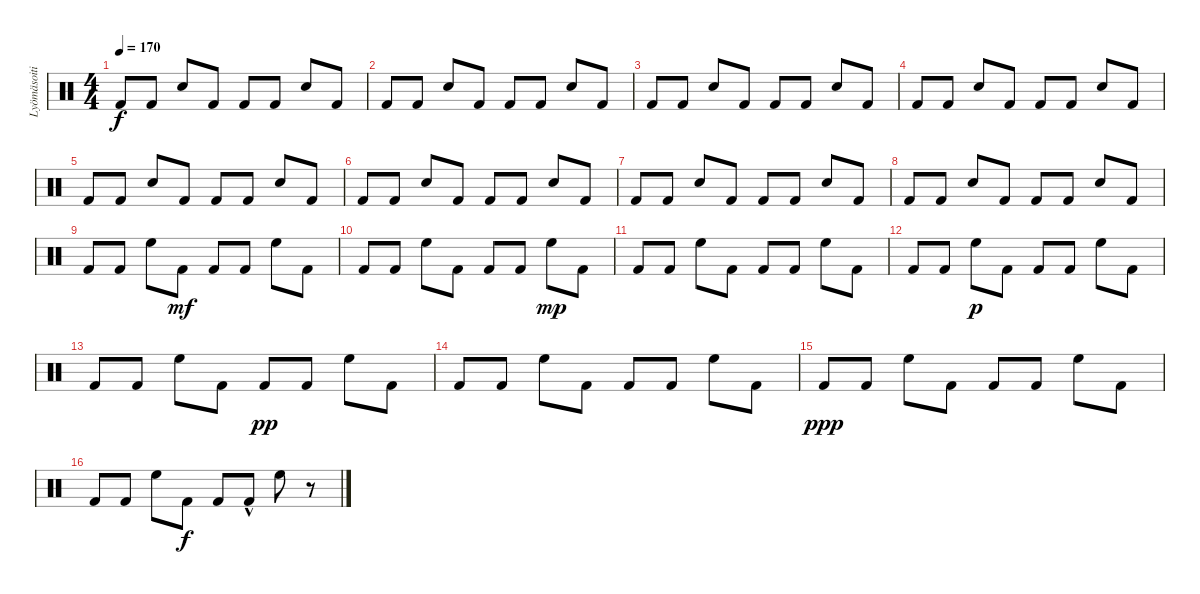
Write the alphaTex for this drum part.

\track ("Lyömäsoitin" "Lyömäsoiti") {instrument percussion}
\staff {score}
\articulation defaults
\ts (4 4)
\tempo 170
\clef neutral
\ks c "Kick (hit) 2".8{dy f} "Kick (hit) 2".8 "Snare (hit) 2".8 "Kick (hit) 2".8 "Kick (hit) 2".8 "Kick (hit) 2".8 "Snare (hit) 2".8 "Kick (hit) 2".8
|
"Kick (hit) 2".8 "Kick (hit) 2".8 "Snare (hit) 2".8 "Kick (hit) 2".8 "Kick (hit) 2".8 "Kick (hit) 2".8 "Snare (hit) 2".8 "Kick (hit) 2".8 |
"Kick (hit) 2".8 "Kick (hit) 2".8 "Snare (hit) 2".8 "Kick (hit) 2".8 "Kick (hit) 2".8 "Kick (hit) 2".8 "Snare (hit) 2".8 "Kick (hit) 2".8 |
"Kick (hit) 2".8 "Kick (hit) 2".8 "Snare (hit) 2".8 "Kick (hit) 2".8 "Kick (hit) 2".8 "Kick (hit) 2".8 "Snare (hit) 2".8 "Kick (hit) 2".8 |
"Kick (hit) 2".8 "Kick (hit) 2".8 "Snare (hit) 2".8 "Kick (hit) 2".8 "Kick (hit) 2".8 "Kick (hit) 2".8 "Snare (hit) 2".8 "Kick (hit) 2".8 |
"Kick (hit) 2".8 "Kick (hit) 2".8 "Snare (hit) 2".8 "Kick (hit) 2".8 "Kick (hit) 2".8 "Kick (hit) 2".8 "Snare (hit) 2".8 "Kick (hit) 2".8 |
"Kick (hit) 2".8 "Kick (hit) 2".8 "Snare (hit) 2".8 "Kick (hit) 2".8 "Kick (hit) 2".8 "Kick (hit) 2".8 "Snare (hit) 2".8 "Kick (hit) 2".8 |
"Kick (hit) 2".8 "Kick (hit) 2".8 "Snare (hit) 2".8 "Kick (hit) 2".8 "Kick (hit) 2".8 "Kick (hit) 2".8 "Snare (hit) 2".8 "Kick (hit) 2".8 |
"Kick (hit) 2".8 "Kick (hit) 2".8 "High Floor Tom (hit)".8 "Kick (hit) 2".8{dy mf} "Kick (hit) 2".8 "Kick (hit) 2".8 "High Floor Tom (hit)".8 "Kick (hit) 2".8 |
"Kick (hit) 2".8 "Kick (hit) 2".8 "High Floor Tom (hit)".8 "Kick (hit) 2".8 "Kick (hit) 2".8 "Kick (hit) 2".8 "High Floor Tom (hit)".8{dy mp} "Kick (hit) 2".8 |
"Kick (hit) 2".8 "Kick (hit) 2".8 "High Floor Tom (hit)".8 "Kick (hit) 2".8 "Kick (hit) 2".8 "Kick (hit) 2".8 "High Floor Tom (hit)".8 "Kick (hit) 2".8 |
"Kick (hit) 2".8 "Kick (hit) 2".8 "High Floor Tom (hit)".8{dy p} "Kick (hit) 2".8 "Kick (hit) 2".8 "Kick (hit) 2".8 "High Floor Tom (hit)".8 "Kick (hit) 2".8 |
"Kick (hit) 2".8 "Kick (hit) 2".8 "High Floor Tom (hit)".8 "Kick (hit) 2".8 "Kick (hit) 2".8{dy pp} "Kick (hit) 2".8 "High Floor Tom (hit)".8 "Kick (hit) 2".8 |
"Kick (hit) 2".8 "Kick (hit) 2".8 "High Floor Tom (hit)".8 "Kick (hit) 2".8 "Kick (hit) 2".8 "Kick (hit) 2".8 "High Floor Tom (hit)".8 "Kick (hit) 2".8 |
"Kick (hit) 2".8{dy ppp} "Kick (hit) 2".8 "High Floor Tom (hit)".8 "Kick (hit) 2".8 "Kick (hit) 2".8 "Kick (hit) 2".8 "High Floor Tom (hit)".8 "Kick (hit) 2".8 |
"Kick (hit) 2".8 "Kick (hit) 2".8 "High Floor Tom (hit)".8 "Kick (hit) 2".8{dy f} "Kick (hit) 2".8 "Kick (hit) 2"{hac}.8 "High Floor Tom (hit)".8 r.8
